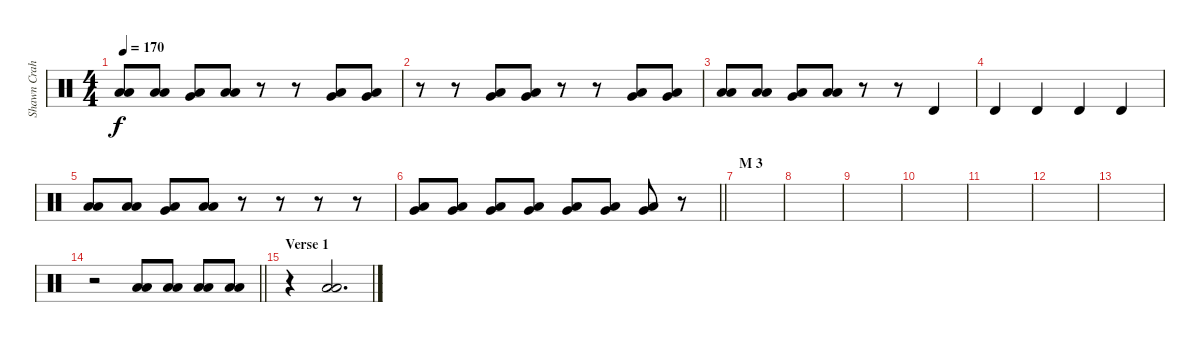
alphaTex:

\track ("Shawn Crahan" "Shawn Crah") {instrument percussion}
\staff {score}
\articulation defaults
\ts (4 4)
\tempo 170
\clef neutral
\ks c
("Low Floor Tom (hit)" "Low Floor Tom (hit)").8{dy f} ("Low Floor Tom (hit)" "Low Floor Tom (hit)").8 ("Very Low Tom (hit)" "Low Floor Tom (hit)").8 ("Low Floor Tom (hit)" "Low Floor Tom (hit)").8 r.8 r.8 ("Very Low Tom (hit)" "Low Floor Tom (hit)").8 ("Very Low Tom (hit)" "Low Floor Tom (hit)").8 |
r.8 r.8 ("Very Low Tom (hit)" "Low Floor Tom (hit)").8 ("Very Low Tom (hit)" "Low Floor Tom (hit)").8 r.8 r.8 ("Very Low Tom (hit)" "Low Floor Tom (hit)").8 ("Very Low Tom (hit)" "Low Floor Tom (hit)").8 |
("Low Floor Tom (hit)" "Low Floor Tom (hit)").8 ("Low Floor Tom (hit)" "Low Floor Tom (hit)").8 ("Very Low Tom (hit)" "Low Floor Tom (hit)").8 ("Low Floor Tom (hit)" "Low Floor Tom (hit)").8 r.8 r.8 "Timbale high (hit)".4 |
"Timbale high (hit)".4 "Timbale high (hit)".4 "Timbale high (hit)".4 "Timbale high (hit)".4 |
("Low Floor Tom (hit)" "Low Floor Tom (hit)").8 ("Low Floor Tom (hit)" "Low Floor Tom (hit)").8 ("Very Low Tom (hit)" "Low Floor Tom (hit)").8 ("Low Floor Tom (hit)" "Low Floor Tom (hit)").8 r.8 r.8 r.8 r.8 |
\barLineRight lightlight
("Very Low Tom (hit)" "Low Floor Tom (hit)").8 ("Very Low Tom (hit)" "Low Floor Tom (hit)").8 ("Very Low Tom (hit)" "Low Floor Tom (hit)").8 ("Very Low Tom (hit)" "Low Floor Tom (hit)").8 ("Very Low Tom (hit)" "Low Floor Tom (hit)").8 ("Very Low Tom (hit)" "Low Floor Tom (hit)").8 ("Very Low Tom (hit)" "Low Floor Tom (hit)").8 r.8 |
\section ("" "M 3")
|
|
|
|
|
|
|
\barLineRight lightlight
r.2 ("Low Floor Tom (hit)" "Low Floor Tom (hit)").8 ("Low Floor Tom (hit)" "Low Floor Tom (hit)").8 ("Low Floor Tom (hit)" "Low Floor Tom (hit)").8 ("Low Floor Tom (hit)" "Low Floor Tom (hit)").8 |
\section ("" "Verse 1")
r.4 ("Low Floor Tom (hit)" "Low Floor Tom (hit)").2{d}
